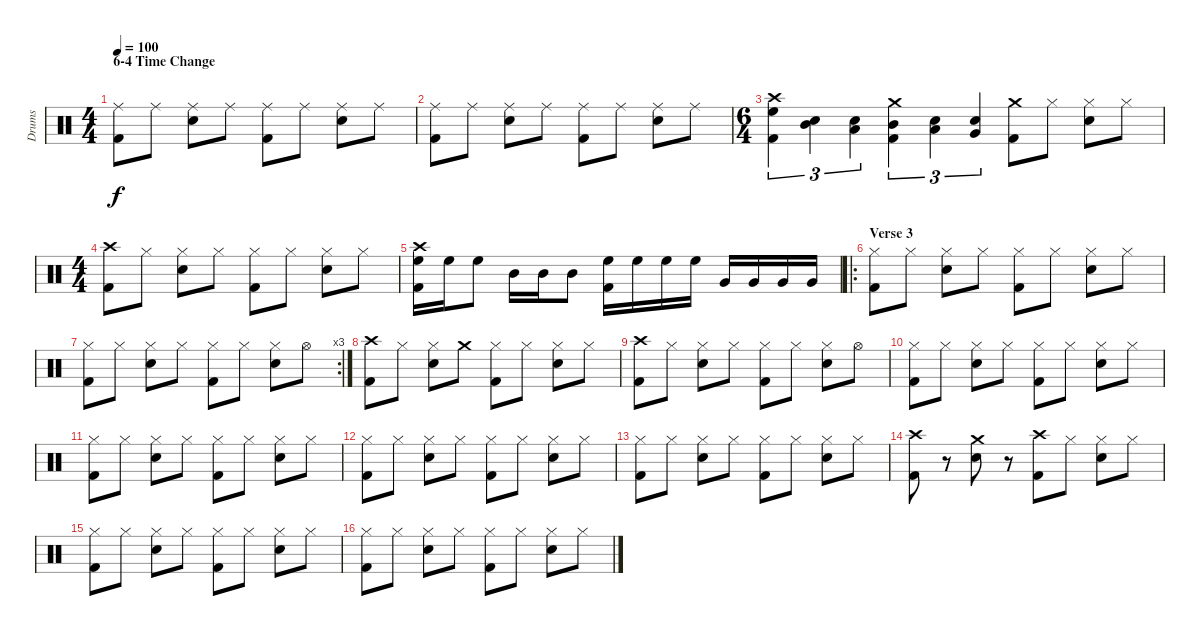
\track ("Drums" "Drums") {instrument percussion}
\staff {score}
\articulation defaults
\ts (4 4)
\section ("" "6-4 Time Change")
\tempo 100
\clef neutral
\ks c
("Ride (middle)" "Kick (hit) 2").8{dy f} "Ride (middle)".8 ("Ride (middle)" "Snare (hit) 2").8 "Ride (middle)".8 ("Ride (middle)" "Kick (hit) 2").8 "Ride (middle)".8 ("Ride (middle)" "Snare (hit) 2").8 "Ride (middle)".8 |
("Ride (middle)" "Kick (hit) 2").8 "Ride (middle)".8 ("Ride (middle)" "Snare (hit) 2").8 "Ride (middle)".8 ("Ride (middle)" "Kick (hit) 2").8 "Ride (middle)".8 ("Ride (middle)" "Snare (hit) 2").8 "Ride (middle)".8 |
\ts (6 4)
("Crash high (hit)" "High Floor Tom (hit)" "Kick (hit) 2").4{tu (3 2)} ("Snare (hit) 2" "Mid Tom (hit)").4{tu (3 2)} ("Snare (hit) 2" "Low Tom (hit)").4{tu (3 2)} ("Crash medium (hit)" "Mid Tom (hit)" "Kick (hit) 2").4{tu (3 2)} ("Snare (hit) 2" "Low Tom (hit)").4{tu (3 2)} ("Snare (hit) 2" "Very Low Tom (hit)").4{tu (3 2)} ("Crash medium (hit)" "Kick (hit) 2").8 "Hi-Hat (closed)".8 ("Hi-Hat (closed)" "Snare (hit) 2").8 "Hi-Hat (closed)".8 |
\ts (4 4)
("Crash high (hit)" "Kick (hit) 2").8 "Hi-Hat (closed)".8 ("Hi-Hat (closed)" "Snare (hit) 2").8 "Hi-Hat (closed)".8 ("Hi-Hat (closed)" "Kick (hit) 2").8 "Hi-Hat (closed)".8 ("Hi-Hat (closed)" "Snare (hit) 2").8 "Hi-Hat (closed)".8 |
("Crash high (hit)" "High Floor Tom (hit)" "Kick (hit) 2").16 "High Floor Tom (hit)".16 "High Floor Tom (hit)".8 "Mid Tom (hit)".16 "Mid Tom (hit)".16 "Mid Tom (hit)".8 ("High Floor Tom (hit)" "Kick (hit) 2").16 "High Floor Tom (hit)".16 "High Floor Tom (hit)".16 "High Floor Tom (hit)".16 "Very Low Tom (hit)".16 "Very Low Tom (hit)".16 "Very Low Tom (hit)".16 "Very Low Tom (hit)".16 |
\ro
\section ("" "Verse 3")
("Hi-Hat (closed)" "Kick (hit) 2").8 "Hi-Hat (closed)".8 ("Hi-Hat (closed)" "Snare (hit) 2").8 "Hi-Hat (closed)".8 ("Hi-Hat (closed)" "Kick (hit) 2").8 "Hi-Hat (closed)".8 ("Hi-Hat (closed)" "Snare (hit) 2").8 "Hi-Hat (closed)".8 |
\rc 3
("Hi-Hat (closed)" "Kick (hit) 2").8 "Hi-Hat (closed)".8 ("Hi-Hat (closed)" "Snare (hit) 2").8 "Hi-Hat (closed)".8 ("Hi-Hat (closed)" "Kick (hit) 2").8 "Hi-Hat (closed)".8 ("Hi-Hat (closed)" "Snare (hit) 2").8 "Hi-Hat (open)".8 |
("Crash high (hit)" "Kick (hit) 2").8 "Hi-Hat (closed)".8 ("Hi-Hat (closed)" "Snare (hit) 2").8 "Crash medium (hit)".8 ("Hi-Hat (closed)" "Kick (hit) 2").8 "Hi-Hat (closed)".8 ("Hi-Hat (closed)" "Snare (hit) 2").8 "Hi-Hat (closed)".8 |
("Crash high (hit)" "Kick (hit) 2").8 "Hi-Hat (closed)".8 ("Hi-Hat (closed)" "Snare (hit) 2").8 "Hi-Hat (closed)".8 ("Hi-Hat (closed)" "Kick (hit) 2").8 "Hi-Hat (closed)".8 ("Hi-Hat (closed)" "Snare (hit) 2").8 "Hi-Hat (open)".8 |
("Hi-Hat (closed)" "Kick (hit) 2").8 "Hi-Hat (closed)".8 ("Hi-Hat (closed)" "Snare (hit) 2").8 "Hi-Hat (closed)".8 ("Hi-Hat (closed)" "Kick (hit) 2").8 "Hi-Hat (closed)".8 ("Hi-Hat (closed)" "Snare (hit) 2").8 "Hi-Hat (closed)".8 |
("Hi-Hat (closed)" "Kick (hit) 2").8 "Hi-Hat (closed)".8 ("Hi-Hat (closed)" "Snare (hit) 2").8 "Hi-Hat (closed)".8 ("Hi-Hat (closed)" "Kick (hit) 2").8 "Hi-Hat (closed)".8 ("Hi-Hat (closed)" "Snare (hit) 2").8 "Hi-Hat (closed)".8 |
("Hi-Hat (closed)" "Kick (hit) 2").8 "Hi-Hat (closed)".8 ("Hi-Hat (closed)" "Snare (hit) 2").8 "Hi-Hat (closed)".8 ("Hi-Hat (closed)" "Kick (hit) 2").8 "Hi-Hat (closed)".8 ("Hi-Hat (closed)" "Snare (hit) 2").8 "Hi-Hat (closed)".8 |
("Hi-Hat (closed)" "Kick (hit) 2").8 "Hi-Hat (closed)".8 ("Hi-Hat (closed)" "Snare (hit) 2").8 "Hi-Hat (closed)".8 ("Hi-Hat (closed)" "Kick (hit) 2").8 "Hi-Hat (closed)".8 ("Hi-Hat (closed)" "Snare (hit) 2").8 "Hi-Hat (closed)".8 |
("Crash high (hit)" "Kick (hit) 2").8 r.8 ("Crash medium (hit)" "Snare (hit) 2").8 r.8 ("Crash high (hit)" "Kick (hit) 2").8 "Hi-Hat (closed)".8 ("Hi-Hat (closed)" "Snare (hit) 2").8 "Hi-Hat (closed)".8 |
("Hi-Hat (closed)" "Kick (hit) 2").8 "Hi-Hat (closed)".8 ("Hi-Hat (closed)" "Snare (hit) 2").8 "Hi-Hat (closed)".8 ("Hi-Hat (closed)" "Kick (hit) 2").8 "Hi-Hat (closed)".8 ("Hi-Hat (closed)" "Snare (hit) 2").8 "Hi-Hat (closed)".8 |
("Hi-Hat (closed)" "Kick (hit) 2").8 "Hi-Hat (closed)".8 ("Hi-Hat (closed)" "Snare (hit) 2").8 "Hi-Hat (closed)".8 ("Hi-Hat (closed)" "Kick (hit) 2").8 "Hi-Hat (closed)".8 ("Hi-Hat (closed)" "Snare (hit) 2").8 "Hi-Hat (closed)".8
